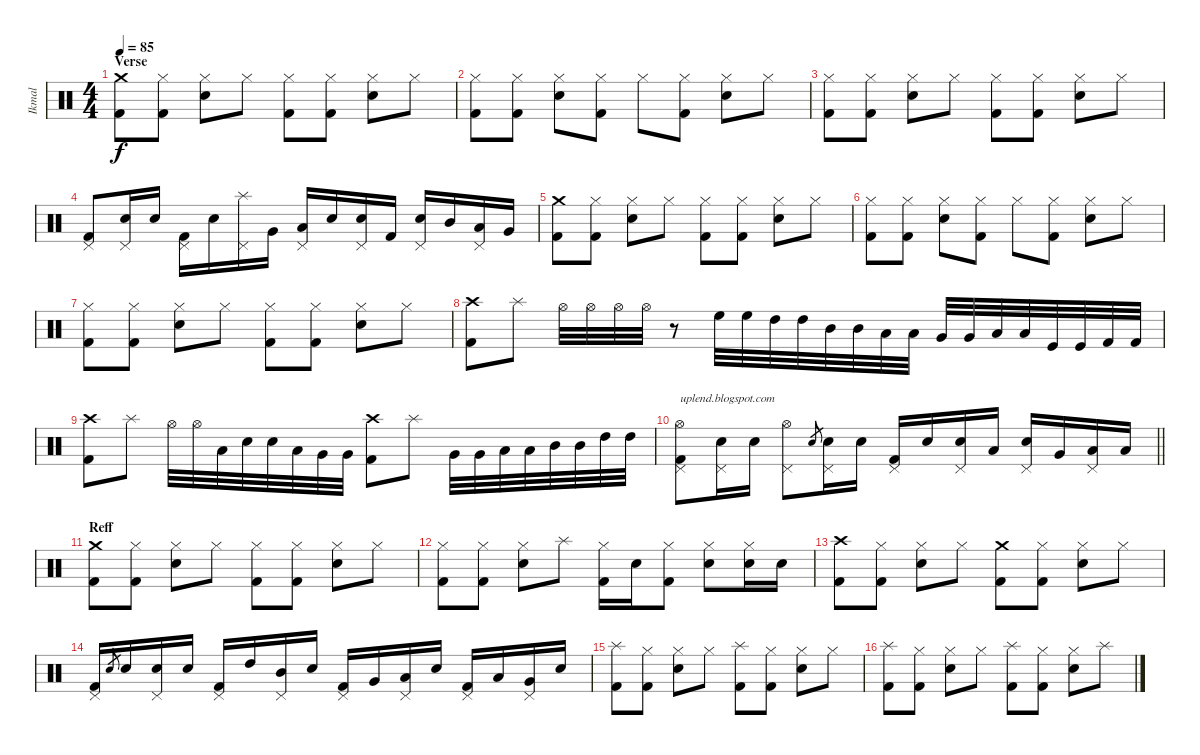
\track ("Ikmal" "Ikmal") {instrument percussion}
\staff {score}
\articulation defaults
\ts (4 4)
\section ("" "Verse")
\tempo 85
\clef neutral
\ks c
("Crash medium (hit)" "Kick (hit) 2").8{dy f} ("Hi-Hat (closed)" "Kick (hit) 2").8 ("Hi-Hat (closed)" "Electric Snare (hit)").8 "Hi-Hat (closed)".8 ("Hi-Hat (closed)" "Kick (hit) 2").8 ("Hi-Hat (closed)" "Kick (hit) 2").8 ("Hi-Hat (closed)" "Electric Snare (hit)").8 "Hi-Hat (closed)".8 |
("Hi-Hat (closed)" "Kick (hit) 2").8 ("Hi-Hat (closed)" "Kick (hit) 2").8 ("Hi-Hat (closed)" "Electric Snare (hit)").8 ("Hi-Hat (closed)" "Kick (hit) 2").8 "Hi-Hat (closed)".8 ("Hi-Hat (closed)" "Kick (hit) 2").8 ("Hi-Hat (closed)" "Electric Snare (hit)").8 "Hi-Hat (closed)".8 |
("Hi-Hat (closed)" "Kick (hit) 2").8 ("Hi-Hat (closed)" "Kick (hit) 2").8 ("Hi-Hat (closed)" "Electric Snare (hit)").8 "Hi-Hat (closed)".8 ("Hi-Hat (closed)" "Kick (hit) 2").8 ("Hi-Hat (closed)" "Kick (hit) 2").8 ("Hi-Hat (closed)" "Electric Snare (hit)").8 "Hi-Hat (closed)".8 |
("Pedal Hi-Hat (hit)" "Kick (hit) 2").8 ("Pedal Hi-Hat (hit)" "Electric Snare (hit)").16 "Electric Snare (hit)".16 ("Pedal Hi-Hat (hit)" "Kick (hit) 2").16 "Electric Snare (hit)".16 ("Pedal Hi-Hat (hit)" "Splash (hit)").16 "Very Low Tom (hit)".16 ("Pedal Hi-Hat (hit)" "Low Tom (hit)").16 "Electric Snare (hit)".16 ("Pedal Hi-Hat (hit)" "Electric Snare (hit)").16 "Kick (hit) 2".16 ("Pedal Hi-Hat (hit)" "Electric Snare (hit)").16 "Mid Tom (hit)".16 ("Pedal Hi-Hat (hit)" "Low Tom (hit)").16 "Very Low Tom (hit)".16 |
("Crash medium (hit)" "Kick (hit) 2").8 ("Hi-Hat (closed)" "Kick (hit) 2").8 ("Hi-Hat (closed)" "Electric Snare (hit)").8 "Hi-Hat (closed)".8 ("Hi-Hat (closed)" "Kick (hit) 2").8 ("Hi-Hat (closed)" "Kick (hit) 2").8 ("Hi-Hat (closed)" "Electric Snare (hit)").8 "Hi-Hat (closed)".8 |
("Hi-Hat (closed)" "Kick (hit) 2").8 ("Hi-Hat (closed)" "Kick (hit) 2").8 ("Hi-Hat (closed)" "Electric Snare (hit)").8 ("Hi-Hat (closed)" "Kick (hit) 2").8 "Hi-Hat (closed)".8 ("Hi-Hat (closed)" "Kick (hit) 2").8 ("Hi-Hat (closed)" "Electric Snare (hit)").8 "Hi-Hat (closed)".8 |
("Hi-Hat (closed)" "Kick (hit) 2").8 ("Hi-Hat (closed)" "Kick (hit) 2").8 ("Hi-Hat (closed)" "Electric Snare (hit)").8 "Hi-Hat (closed)".8 ("Hi-Hat (closed)" "Kick (hit) 2").8 ("Hi-Hat (closed)" "Kick (hit) 2").8 ("Hi-Hat (closed)" "Electric Snare (hit)").8 "Hi-Hat (closed)".8 |
("Crash high (hit)" "Kick (hit) 2").8 "Splash (hit)".8 "Hi-Hat (open)".32 "Hi-Hat (open)".32 "Hi-Hat (open)".32 "Hi-Hat (open)".32 r.8 "High Floor Tom (hit)".32 "High Floor Tom (hit)".32 "High Tom (hit)".32 "High Tom (hit)".32 "Mid Tom (hit)".32 "Mid Tom (hit)".32 "Low Tom (hit)".32 "Low Tom (hit)".32 "Very Low Tom (hit)".32 "Very Low Tom (hit)".32 "Low Floor Tom (hit)".32 "Low Floor Tom (hit)".32 "Kick (hit)".32 "Kick (hit)".32 "Kick (hit) 2".32 "Kick (hit) 2".32 |
("Crash high (hit)" "Kick (hit) 2").8 "Splash (hit)".8 "Hi-Hat (open)".32 "Hi-Hat (open)".32 "Low Tom (hit)".32 "Electric Snare (hit)".32 "Electric Snare (hit)".32 "Low Tom (hit)".32 "Very Low Tom (hit)".32 "Very Low Tom (hit)".32 ("Crash high (hit)" "Kick (hit) 2").8 "Splash (hit)".8 "Very Low Tom (hit)".32 "Very Low Tom (hit)".32 "Low Tom (hit)".32 "Low Tom (hit)".32 "Mid Tom (hit)".32 "Mid Tom (hit)".32 "High Tom (hit)".32 "High Tom (hit)".32 |
\barLineRight lightlight
("Pedal Hi-Hat (hit)" "Hi-Hat (open)" "Kick (hit) 2").8{txt "uplend.blogspot.com"} ("Pedal Hi-Hat (hit)" "Electric Snare (hit)").16 "Electric Snare (hit)".16 ("Pedal Hi-Hat (hit)" "Hi-Hat (open)").8 "Electric Snare (hit)".8{gr} ("Pedal Hi-Hat (hit)" "Electric Snare (hit)").16 "Electric Snare (hit)".16 ("Pedal Hi-Hat (hit)" "Kick (hit) 2").16 "Electric Snare (hit)".16 ("Pedal Hi-Hat (hit)" "Electric Snare (hit)").16 "Low Tom (hit)".16 ("Pedal Hi-Hat (hit)" "Electric Snare (hit)").16 "Very Low Tom (hit)".16 ("Pedal Hi-Hat (hit)" "Low Tom (hit)").16 "Low Floor Tom (hit)".16 |
\section ("" "Reff")
("Crash medium (hit)" "Kick (hit) 2").8 ("Hi-Hat (closed)" "Kick (hit) 2").8 ("Hi-Hat (closed)" "Electric Snare (hit)").8 "Hi-Hat (closed)".8 ("Hi-Hat (closed)" "Kick (hit) 2").8 ("Hi-Hat (closed)" "Kick (hit) 2").8 ("Hi-Hat (closed)" "Electric Snare (hit)").8 "Hi-Hat (closed)".8 |
("Hi-Hat (closed)" "Kick (hit) 2").8 ("Hi-Hat (closed)" "Kick (hit) 2").8 ("Hi-Hat (closed)" "Electric Snare (hit)").8 "Splash (hit)".8 ("Hi-Hat (closed)" "Kick (hit) 2").16 "Electric Snare (hit)".16 ("Hi-Hat (closed)" "Kick (hit) 2").8 ("Hi-Hat (closed)" "Electric Snare (hit)").8 ("Hi-Hat (closed)" "Electric Snare (hit)").16 "Electric Snare (hit)".16 |
("Crash high (hit)" "Kick (hit) 2").8 ("Hi-Hat (closed)" "Kick (hit) 2").8 ("Hi-Hat (closed)" "Electric Snare (hit)").8 "Hi-Hat (closed)".8 ("Crash medium (hit)" "Kick (hit) 2").8 ("Hi-Hat (closed)" "Kick (hit) 2").8 ("Hi-Hat (closed)" "Electric Snare (hit)").8 "Hi-Hat (closed)".8 |
("Pedal Hi-Hat (hit)" "Kick (hit) 2").16 "Electric Snare (hit)".8{gr} "Electric Snare (hit)".16 ("Pedal Hi-Hat (hit)" "Electric Snare (hit)").16 "Electric Snare (hit)".16 ("Pedal Hi-Hat (hit)" "Kick (hit) 2").16 "High Tom (hit)".16 ("Pedal Hi-Hat (hit)" "Mid Tom (hit)").16 "Electric Snare (hit)".16 ("Pedal Hi-Hat (hit)" "Kick (hit) 2").16 "Very Low Tom (hit)".16 ("Pedal Hi-Hat (hit)" "Low Tom (hit)").16 "Electric Snare (hit)".16 ("Pedal Hi-Hat (hit)" "Kick (hit) 2").16 "Low Floor Tom (hit)".16 ("Pedal Hi-Hat (hit)" "Very Low Tom (hit)").16 "Electric Snare (hit)".16 |
("Splash (hit)" "Kick (hit) 2").8 ("Hi-Hat (closed)" "Kick (hit) 2").8 ("Hi-Hat (closed)" "Electric Snare (hit)").8 "Hi-Hat (closed)".8 ("Splash (hit)" "Kick (hit) 2").8 ("Hi-Hat (closed)" "Kick (hit) 2").8 ("Hi-Hat (closed)" "Electric Snare (hit)").8 "Hi-Hat (closed)".8 |
("Splash (hit)" "Kick (hit) 2").8 ("Hi-Hat (closed)" "Kick (hit) 2").8 ("Hi-Hat (closed)" "Electric Snare (hit)").8 "Hi-Hat (closed)".8 ("Splash (hit)" "Kick (hit) 2").8 ("Hi-Hat (closed)" "Kick (hit) 2").8 ("Hi-Hat (closed)" "Electric Snare (hit)").8 "Splash (hit)".8
